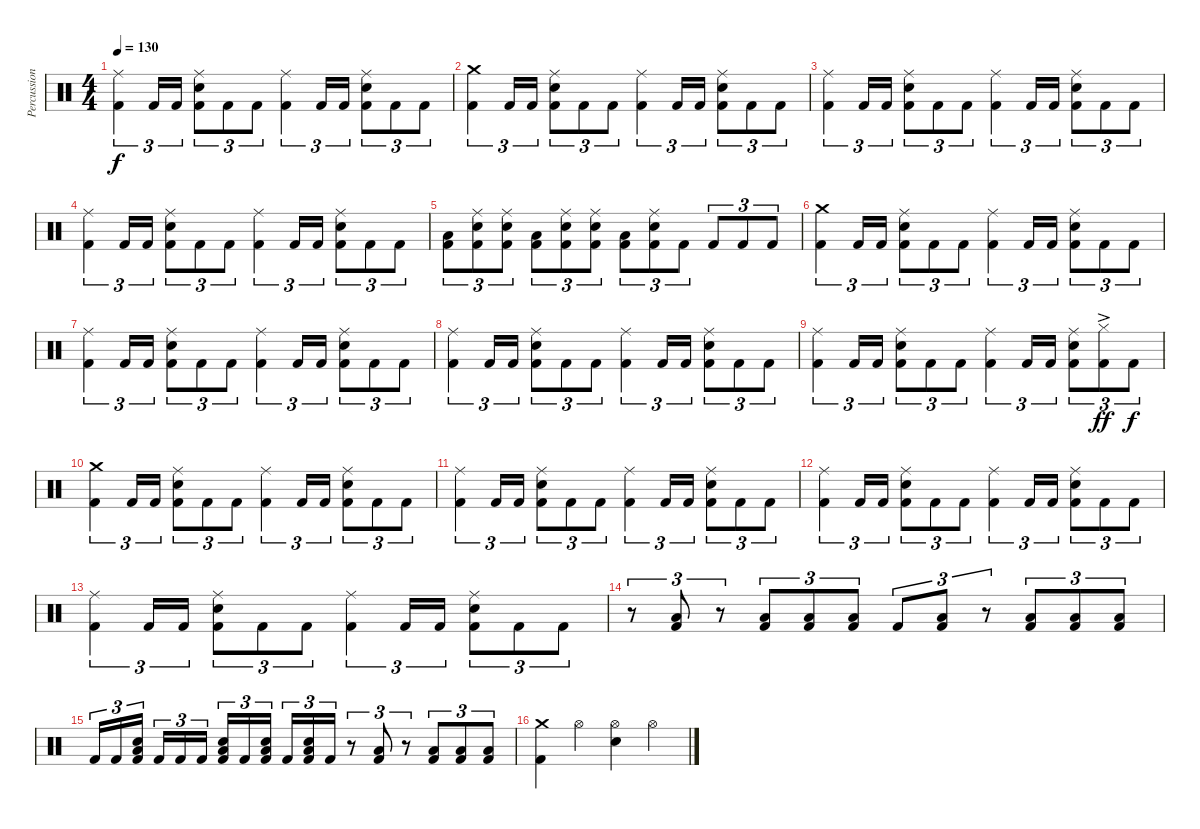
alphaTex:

\track ("Percussions" "Percussion") {instrument percussion}
\staff {score}
\articulation defaults
\ts (4 4)
\tempo 130
\clef neutral
\ks c
("Ride (middle)" "Kick (hit) 2").4{tu (3 2) dy f} "Kick (hit) 2".16{tu (3 2)} "Kick (hit) 2".16{tu (3 2)} ("Ride (middle)" "Electric Snare (hit)" "Kick (hit) 2").8{tu (3 2)} "Kick (hit) 2".8{tu (3 2)} "Kick (hit) 2".8{tu (3 2)} ("Ride (middle)" "Kick (hit) 2").4{tu (3 2)} "Kick (hit) 2".16{tu (3 2)} "Kick (hit) 2".16{tu (3 2)} ("Ride (middle)" "Electric Snare (hit)" "Kick (hit) 2").8{tu (3 2)} "Kick (hit) 2".8{tu (3 2)} "Kick (hit) 2".8{tu (3 2)} |
("Crash medium (hit)" "Kick (hit) 2").4{tu (3 2)} "Kick (hit) 2".16{tu (3 2)} "Kick (hit) 2".16{tu (3 2)} ("Ride (middle)" "Electric Snare (hit)" "Kick (hit) 2").8{tu (3 2)} "Kick (hit) 2".8{tu (3 2)} "Kick (hit) 2".8{tu (3 2)} ("Ride (middle)" "Kick (hit) 2").4{tu (3 2)} "Kick (hit) 2".16{tu (3 2)} "Kick (hit) 2".16{tu (3 2)} ("Ride (middle)" "Electric Snare (hit)" "Kick (hit) 2").8{tu (3 2)} "Kick (hit) 2".8{tu (3 2)} "Kick (hit) 2".8{tu (3 2)} |
("Ride (middle)" "Kick (hit) 2").4{tu (3 2)} "Kick (hit) 2".16{tu (3 2)} "Kick (hit) 2".16{tu (3 2)} ("Ride (middle)" "Electric Snare (hit)" "Kick (hit) 2").8{tu (3 2)} "Kick (hit) 2".8{tu (3 2)} "Kick (hit) 2".8{tu (3 2)} ("Ride (middle)" "Kick (hit) 2").4{tu (3 2)} "Kick (hit) 2".16{tu (3 2)} "Kick (hit) 2".16{tu (3 2)} ("Ride (middle)" "Electric Snare (hit)" "Kick (hit) 2").8{tu (3 2)} "Kick (hit) 2".8{tu (3 2)} "Kick (hit) 2".8{tu (3 2)} |
("Ride (middle)" "Kick (hit) 2").4{tu (3 2)} "Kick (hit) 2".16{tu (3 2)} "Kick (hit) 2".16{tu (3 2)} ("Ride (middle)" "Electric Snare (hit)" "Kick (hit) 2").8{tu (3 2)} "Kick (hit) 2".8{tu (3 2)} "Kick (hit) 2".8{tu (3 2)} ("Ride (middle)" "Kick (hit) 2").4{tu (3 2)} "Kick (hit) 2".16{tu (3 2)} "Kick (hit) 2".16{tu (3 2)} ("Ride (middle)" "Electric Snare (hit)" "Kick (hit) 2").8{tu (3 2)} "Kick (hit) 2".8{tu (3 2)} "Kick (hit) 2".8{tu (3 2)} |
("Low Tom (hit)" "Kick (hit) 2").8{tu (3 2)} ("Ride (middle)" "Electric Snare (hit)" "Kick (hit) 2").8{tu (3 2)} ("Ride (middle)" "Electric Snare (hit)" "Kick (hit) 2").8{tu (3 2)} ("Low Tom (hit)" "Kick (hit) 2").8{tu (3 2)} ("Ride (middle)" "Electric Snare (hit)" "Kick (hit) 2").8{tu (3 2)} ("Ride (middle)" "Electric Snare (hit)" "Kick (hit) 2").8{tu (3 2)} ("Low Tom (hit)" "Kick (hit) 2").8{tu (3 2)} ("Ride (middle)" "Electric Snare (hit)" "Kick (hit) 2").8{tu (3 2)} "Kick (hit) 2".8{tu (3 2)} "Kick (hit) 2".8{tu (3 2)} "Kick (hit) 2".8{tu (3 2)} "Kick (hit) 2".8{tu (3 2)} |
("Crash medium (hit)" "Kick (hit) 2").4{tu (3 2)} "Kick (hit) 2".16{tu (3 2)} "Kick (hit) 2".16{tu (3 2)} ("Ride (middle)" "Electric Snare (hit)" "Kick (hit) 2").8{tu (3 2)} "Kick (hit) 2".8{tu (3 2)} "Kick (hit) 2".8{tu (3 2)} ("Ride (middle)" "Kick (hit) 2").4{tu (3 2)} "Kick (hit) 2".16{tu (3 2)} "Kick (hit) 2".16{tu (3 2)} ("Ride (middle)" "Electric Snare (hit)" "Kick (hit) 2").8{tu (3 2)} "Kick (hit) 2".8{tu (3 2)} "Kick (hit) 2".8{tu (3 2)} |
("Ride (middle)" "Kick (hit) 2").4{tu (3 2)} "Kick (hit) 2".16{tu (3 2)} "Kick (hit) 2".16{tu (3 2)} ("Ride (middle)" "Electric Snare (hit)" "Kick (hit) 2").8{tu (3 2)} "Kick (hit) 2".8{tu (3 2)} "Kick (hit) 2".8{tu (3 2)} ("Ride (middle)" "Kick (hit) 2").4{tu (3 2)} "Kick (hit) 2".16{tu (3 2)} "Kick (hit) 2".16{tu (3 2)} ("Ride (middle)" "Electric Snare (hit)" "Kick (hit) 2").8{tu (3 2)} "Kick (hit) 2".8{tu (3 2)} "Kick (hit) 2".8{tu (3 2)} |
("Ride (middle)" "Kick (hit) 2").4{tu (3 2)} "Kick (hit) 2".16{tu (3 2)} "Kick (hit) 2".16{tu (3 2)} ("Ride (middle)" "Electric Snare (hit)" "Kick (hit) 2").8{tu (3 2)} "Kick (hit) 2".8{tu (3 2)} "Kick (hit) 2".8{tu (3 2)} ("Ride (middle)" "Kick (hit) 2").4{tu (3 2)} "Kick (hit) 2".16{tu (3 2)} "Kick (hit) 2".16{tu (3 2)} ("Ride (middle)" "Electric Snare (hit)" "Kick (hit) 2").8{tu (3 2)} "Kick (hit) 2".8{tu (3 2)} "Kick (hit) 2".8{tu (3 2)} |
("Ride (middle)" "Kick (hit) 2").4{tu (3 2)} "Kick (hit) 2".16{tu (3 2)} "Kick (hit) 2".16{tu (3 2)} ("Ride (middle)" "Electric Snare (hit)" "Kick (hit) 2").8{tu (3 2)} "Kick (hit) 2".8{tu (3 2)} "Kick (hit) 2".8{tu (3 2)} ("Ride (middle)" "Kick (hit) 2").4{tu (3 2)} "Kick (hit) 2".16{tu (3 2)} "Kick (hit) 2".16{tu (3 2)} ("Ride (middle)" "Electric Snare (hit)" "Kick (hit) 2").8{tu (3 2)} ("Hi-Hat (closed)"{ac} "Kick (hit) 2").8{tu (3 2) dy ff} "Kick (hit) 2".8{tu (3 2) dy f} |
("Crash medium (hit)" "Kick (hit) 2").4{tu (3 2)} "Kick (hit) 2".16{tu (3 2)} "Kick (hit) 2".16{tu (3 2)} ("Ride (middle)" "Electric Snare (hit)" "Kick (hit) 2").8{tu (3 2)} "Kick (hit) 2".8{tu (3 2)} "Kick (hit) 2".8{tu (3 2)} ("Ride (middle)" "Kick (hit) 2").4{tu (3 2)} "Kick (hit) 2".16{tu (3 2)} "Kick (hit) 2".16{tu (3 2)} ("Ride (middle)" "Electric Snare (hit)" "Kick (hit) 2").8{tu (3 2)} "Kick (hit) 2".8{tu (3 2)} "Kick (hit) 2".8{tu (3 2)} |
("Ride (middle)" "Kick (hit) 2").4{tu (3 2)} "Kick (hit) 2".16{tu (3 2)} "Kick (hit) 2".16{tu (3 2)} ("Ride (middle)" "Electric Snare (hit)" "Kick (hit) 2").8{tu (3 2)} "Kick (hit) 2".8{tu (3 2)} "Kick (hit) 2".8{tu (3 2)} ("Ride (middle)" "Kick (hit) 2").4{tu (3 2)} "Kick (hit) 2".16{tu (3 2)} "Kick (hit) 2".16{tu (3 2)} ("Ride (middle)" "Electric Snare (hit)" "Kick (hit) 2").8{tu (3 2)} "Kick (hit) 2".8{tu (3 2)} "Kick (hit) 2".8{tu (3 2)} |
("Ride (middle)" "Kick (hit) 2").4{tu (3 2)} "Kick (hit) 2".16{tu (3 2)} "Kick (hit) 2".16{tu (3 2)} ("Ride (middle)" "Electric Snare (hit)" "Kick (hit) 2").8{tu (3 2)} "Kick (hit) 2".8{tu (3 2)} "Kick (hit) 2".8{tu (3 2)} ("Ride (middle)" "Kick (hit) 2").4{tu (3 2)} "Kick (hit) 2".16{tu (3 2)} "Kick (hit) 2".16{tu (3 2)} ("Ride (middle)" "Electric Snare (hit)" "Kick (hit) 2").8{tu (3 2)} "Kick (hit) 2".8{tu (3 2)} "Kick (hit) 2".8{tu (3 2)} |
("Ride (middle)" "Kick (hit) 2").4{tu (3 2)} "Kick (hit) 2".16{tu (3 2)} "Kick (hit) 2".16{tu (3 2)} ("Ride (middle)" "Electric Snare (hit)" "Kick (hit) 2").8{tu (3 2)} "Kick (hit) 2".8{tu (3 2)} "Kick (hit) 2".8{tu (3 2)} ("Ride (middle)" "Kick (hit) 2").4{tu (3 2)} "Kick (hit) 2".16{tu (3 2)} "Kick (hit) 2".16{tu (3 2)} ("Ride (middle)" "Electric Snare (hit)" "Kick (hit) 2").8{tu (3 2)} "Kick (hit) 2".8{tu (3 2)} "Kick (hit) 2".8{tu (3 2)} |
r.8{tu (3 2)} ("Low Tom (hit)" "Kick (hit) 2").8{tu (3 2)} r.8{tu (3 2)} ("Low Tom (hit)" "Kick (hit) 2").8{tu (3 2)} ("Low Tom (hit)" "Kick (hit) 2").8{tu (3 2)} ("Low Tom (hit)" "Kick (hit) 2").8{tu (3 2)} "Kick (hit) 2".8{tu (3 2)} ("Low Tom (hit)" "Kick (hit) 2").8{tu (3 2)} r.8{tu (3 2)} ("Low Tom (hit)" "Kick (hit) 2").8{tu (3 2)} ("Low Tom (hit)" "Kick (hit) 2").8{tu (3 2)} ("Low Tom (hit)" "Kick (hit) 2").8{tu (3 2)} |
"Kick (hit) 2".16{tu (3 2)} "Kick (hit) 2".16{tu (3 2)} ("Electric Snare (hit)" "Low Tom (hit)" "Kick (hit) 2").16{tu (3 2) beam splitsecondary} "Kick (hit) 2".16{tu (3 2)} "Kick (hit) 2".16{tu (3 2)} "Kick (hit) 2".16{tu (3 2)} ("Electric Snare (hit)" "Low Tom (hit)" "Kick (hit) 2").16{tu (3 2)} "Kick (hit) 2".16{tu (3 2)} ("Electric Snare (hit)" "Low Tom (hit)" "Kick (hit) 2").16{tu (3 2) beam splitsecondary} "Kick (hit) 2".16{tu (3 2)} ("Electric Snare (hit)" "Low Tom (hit)" "Kick (hit) 2").16{tu (3 2)} "Kick (hit) 2".16{tu (3 2)} r.8{tu (3 2)} ("Low Tom (hit)" "Kick (hit) 2").8{tu (3 2)} r.8{tu (3 2)} ("Low Tom (hit)" "Kick (hit) 2").8{tu (3 2)} ("Low Tom (hit)" "Kick (hit) 2").8{tu (3 2)} ("Low Tom (hit)" "Kick (hit) 2").8{tu (3 2)} |
("Crash medium (hit)" "Kick (hit) 2").4 "Hi-Hat (open)".4 ("Hi-Hat (open)" "Electric Snare (hit)").4 "Hi-Hat (open)".4
